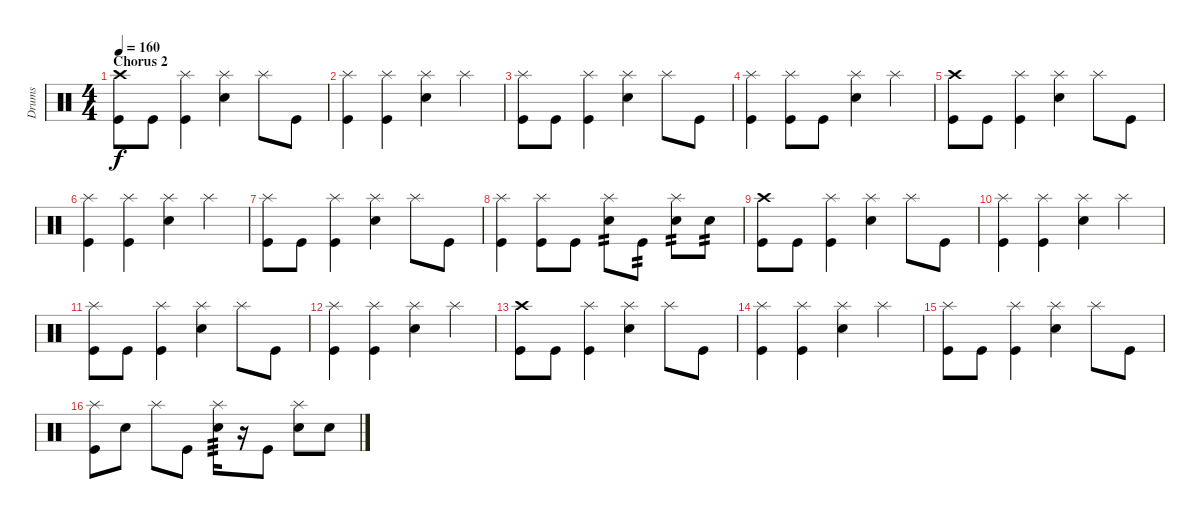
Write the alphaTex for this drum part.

\track ("Drums" "Drums") {instrument percussion}
\staff {score}
\articulation defaults
\ts (4 4)
\section ("" "Chorus 2")
\tempo 160
\clef neutral
\ks c
("Crash high (hit)" "Kick (hit)").8{dy f} "Kick (hit)".8 ("Splash (hit)" "Kick (hit)").4 ("Splash (hit)" "Snare (hit) 2").4 "Splash (hit)".8 "Kick (hit)".8 |
("Splash (hit)" "Kick (hit)").4 ("Splash (hit)" "Kick (hit)").4 ("Splash (hit)" "Snare (hit) 2").4 "Splash (hit)".4 |
("Splash (hit)" "Kick (hit)").8 "Kick (hit)".8 ("Splash (hit)" "Kick (hit)").4 ("Splash (hit)" "Snare (hit) 2").4 "Splash (hit)".8 "Kick (hit)".8 |
("Splash (hit)" "Kick (hit)").4 ("Splash (hit)" "Kick (hit)").8 "Kick (hit)".8 ("Splash (hit)" "Snare (hit) 2").4 "Splash (hit)".4 |
("Crash high (hit)" "Kick (hit)").8 "Kick (hit)".8 ("Splash (hit)" "Kick (hit)").4 ("Splash (hit)" "Snare (hit) 2").4 "Splash (hit)".8 "Kick (hit)".8 |
("Splash (hit)" "Kick (hit)").4 ("Splash (hit)" "Kick (hit)").4 ("Splash (hit)" "Snare (hit) 2").4 "Splash (hit)".4 |
("Splash (hit)" "Kick (hit)").8 "Kick (hit)".8 ("Splash (hit)" "Kick (hit)").4 ("Splash (hit)" "Snare (hit) 2").4 "Splash (hit)".8 "Kick (hit)".8 |
("Splash (hit)" "Kick (hit)").4 ("Splash (hit)" "Kick (hit)").8 "Kick (hit)".8 ("Splash (hit)" "Snare (hit) 2").8{tp 2} "Kick (hit)".8{tp 2} ("Splash (hit)" "Snare (hit) 2").8{tp 2} "Snare (hit) 2".8{tp 2} |
("Crash high (hit)" "Kick (hit)").8 "Kick (hit)".8 ("Splash (hit)" "Kick (hit)").4 ("Splash (hit)" "Snare (hit) 2").4 "Splash (hit)".8 "Kick (hit)".8 |
("Splash (hit)" "Kick (hit)").4 ("Splash (hit)" "Kick (hit)").4 ("Splash (hit)" "Snare (hit) 2").4 "Splash (hit)".4 |
("Splash (hit)" "Kick (hit)").8 "Kick (hit)".8 ("Splash (hit)" "Kick (hit)").4 ("Splash (hit)" "Snare (hit) 2").4 "Splash (hit)".8 "Kick (hit)".8 |
("Splash (hit)" "Kick (hit)").4 ("Splash (hit)" "Kick (hit)").4 ("Splash (hit)" "Snare (hit) 2").4 "Splash (hit)".4 |
("Crash high (hit)" "Kick (hit)").8 "Kick (hit)".8 ("Splash (hit)" "Kick (hit)").4 ("Splash (hit)" "Snare (hit) 2").4 "Splash (hit)".8 "Kick (hit)".8 |
("Splash (hit)" "Kick (hit)").4 ("Splash (hit)" "Kick (hit)").4 ("Splash (hit)" "Snare (hit) 2").4 "Splash (hit)".4 |
("Splash (hit)" "Kick (hit)").8 "Kick (hit)".8 ("Splash (hit)" "Kick (hit)").4 ("Splash (hit)" "Snare (hit) 2").4 "Splash (hit)".8 "Kick (hit)".8 |
("Splash (hit)" "Kick (hit)").8 "Snare (hit) 2".8 "Splash (hit)".8 "Kick (hit)".8 ("Splash (hit)" "Snare (hit) 2").16{tp 3} r.16 "Kick (hit)".8 ("Splash (hit)" "Snare (hit) 2").8 "Snare (hit) 2".8
